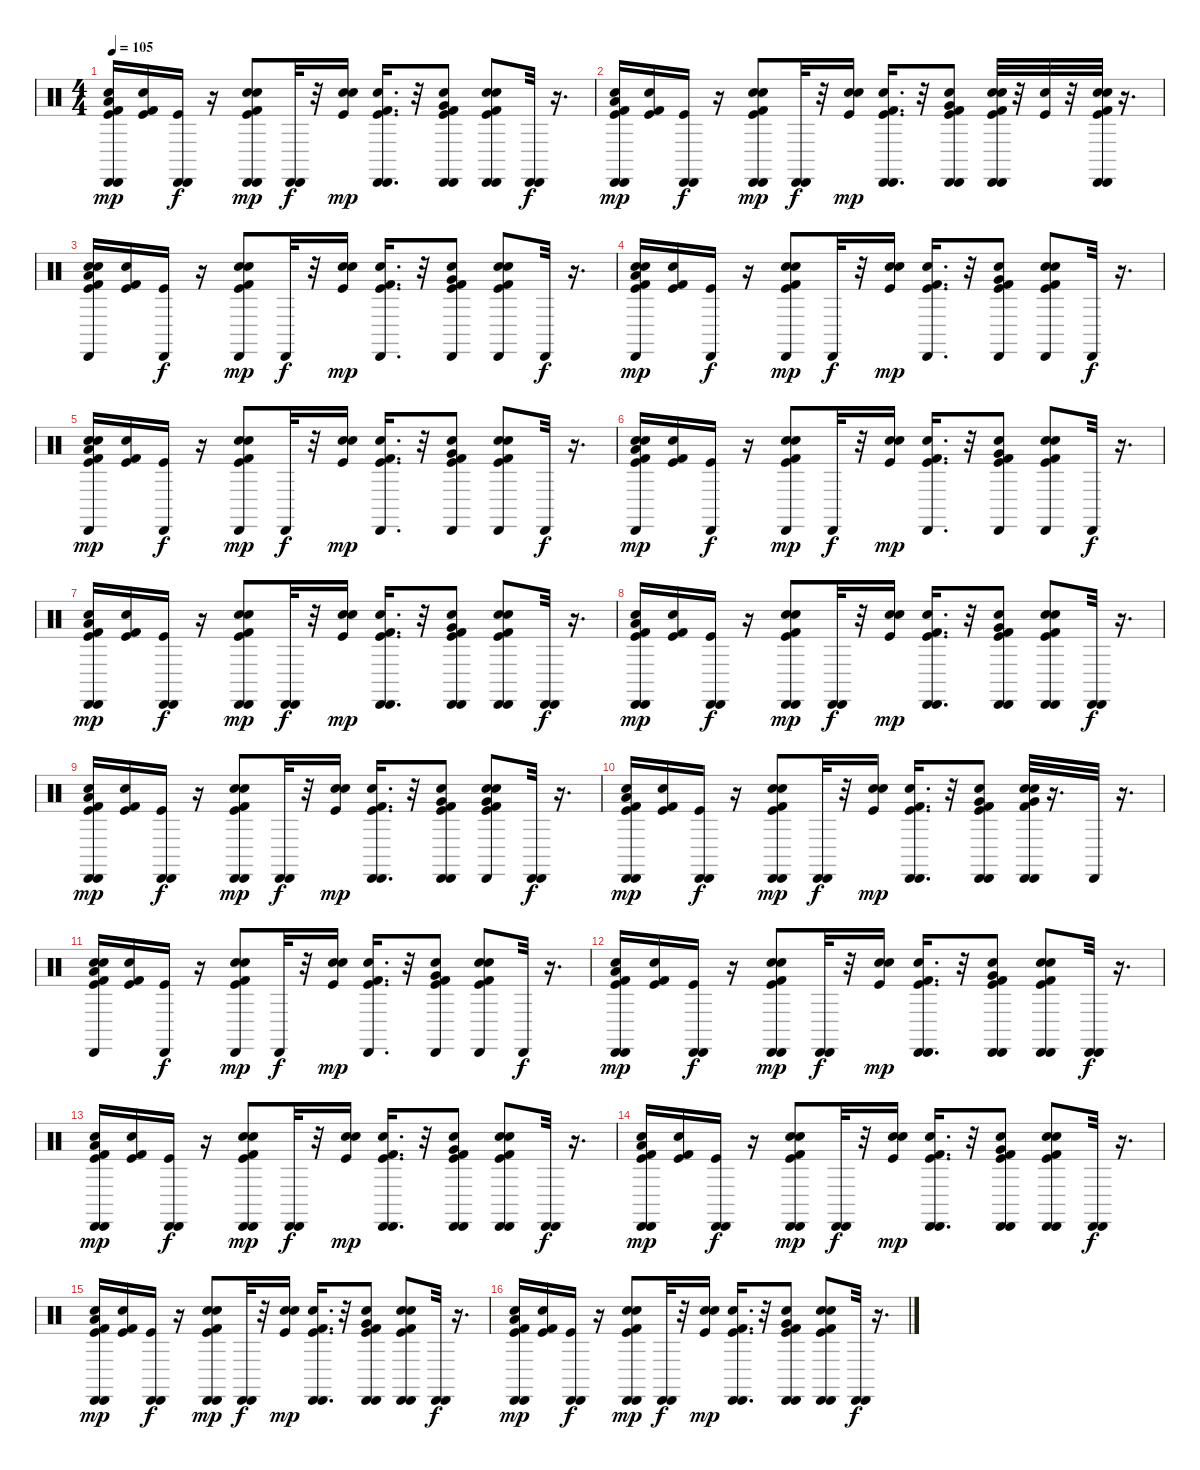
\track "" {instrument percussion}
\staff {score}
\articulation defaults
\ts (4 4)
\tempo 105
\clef neutral
\ks c
("Cabasa (hit)" "Kick (hit) 2" "Kick (hit)" "Cabasa (hit)" "Electric Snare (hit)" "Low Floor Tom (hit)").16{dy mp} ("Snare (hit) 2" "Kick (hit)" "Kick (hit) 2").16 ("Cabasa (hit)" "Cabasa (hit)" "Kick (hit)").16{dy f} r.16 ("Electric Snare (hit)" "Cabasa (hit)" "Cabasa (hit)" "Kick (hit) 2" "Kick (hit)" "Snare (hit) 2").8{dy mp} ("Cabasa (hit)" "Cabasa (hit)").32{dy f} r.32 ("Kick (hit)" "Electric Snare (hit)" "Snare (hit) 2").16{dy mp} ("Kick (hit)" "Snare (hit) 2" "Kick (hit) 2" "Cabasa (hit)" "Cabasa (hit)").16{d} r.32 ("Kick (hit) 2" "Snare (hit) 2" "Kick (hit)" "Cabasa (hit)" "Very Low Tom (hit)" "Cabasa (hit)").8 ("Kick (hit)" "Snare (hit) 2" "Cabasa (hit)" "Kick (hit) 2" "Electric Snare (hit)" "Cabasa (hit)").8 ("Cabasa (hit)" "Cabasa (hit)").32{dy f} r.16{d} |
("Kick (hit) 2" "Cabasa (hit)" "Kick (hit)" "Cabasa (hit)" "Low Floor Tom (hit)" "Electric Snare (hit)").16{dy mp} ("Kick (hit) 2" "Kick (hit)" "Snare (hit) 2").16 ("Kick (hit)" "Cabasa (hit)" "Cabasa (hit)").16{dy f} r.16 ("Snare (hit) 2" "Cabasa (hit)" "Kick (hit)" "Electric Snare (hit)" "Cabasa (hit)" "Kick (hit) 2").8{dy mp} ("Cabasa (hit)" "Cabasa (hit)").32{dy f} r.32 ("Electric Snare (hit)" "Kick (hit)" "Snare (hit) 2").16{dy mp} ("Cabasa (hit)" "Cabasa (hit)" "Snare (hit) 2" "Kick (hit)" "Kick (hit) 2").16{d} r.32 ("Snare (hit) 2" "Kick (hit)" "Cabasa (hit)" "Kick (hit) 2" "Very Low Tom (hit)" "Cabasa (hit)").8 ("Electric Snare (hit)" "Kick (hit)" "Kick (hit) 2" "Snare (hit) 2" "Cabasa (hit)" "Cabasa (hit)").32 r.32 ("Kick (hit)" "Snare (hit) 2").32 r.32 ("Kick (hit)" "Cabasa (hit)" "Cabasa (hit)" "Hand Clap (hit)" "Kick (hit) 2" "Electric Snare (hit)").32 r.16{d} |
("Cabasa (hit)" "Low Floor Tom (hit)" "Electric Snare (hit)" "Kick (hit) 2" "Kick (hit)" "Snare (hit) 2").16 ("Snare (hit) 2" "Kick (hit)" "Kick (hit) 2").16 ("Kick (hit)" "Cabasa (hit)").16{dy f} r.16 ("Hand Clap (hit)" "Cabasa (hit)" "Kick (hit) 2" "Snare (hit) 2" "Kick (hit)").8{dy mp} "Cabasa (hit)".32{dy f} r.32 ("Snare (hit) 2" "Kick (hit)" "Electric Snare (hit)").16{dy mp} ("Kick (hit) 2" "Snare (hit) 2" "Kick (hit)" "Cabasa (hit)").16{d} r.32 ("Snare (hit) 2" "Kick (hit) 2" "Cabasa (hit)" "Very Low Tom (hit)" "Kick (hit)").8 ("Snare (hit) 2" "Kick (hit)" "Hand Clap (hit)" "Cabasa (hit)" "Kick (hit) 2").8 "Cabasa (hit)".32{dy f} r.16{d} |
("Electric Snare (hit)" "Kick (hit)" "Kick (hit) 2" "Cabasa (hit)" "Low Floor Tom (hit)" "Snare (hit) 2").16{dy mp} ("Kick (hit)" "Snare (hit) 2" "Kick (hit) 2").16 ("Cabasa (hit)" "Kick (hit)").16{dy f} r.16 ("Hand Clap (hit)" "Kick (hit)" "Snare (hit) 2" "Cabasa (hit)" "Kick (hit) 2").8{dy mp} "Cabasa (hit)".32{dy f} r.32 ("Electric Snare (hit)" "Snare (hit) 2" "Kick (hit)").16{dy mp} ("Snare (hit) 2" "Kick (hit) 2" "Kick (hit)" "Cabasa (hit)").16{d} r.32 ("Kick (hit) 2" "Very Low Tom (hit)" "Snare (hit) 2" "Kick (hit)" "Cabasa (hit)").8 ("Kick (hit)" "Cabasa (hit)" "Snare (hit) 2" "Hand Clap (hit)" "Kick (hit) 2").8 "Cabasa (hit)".32{dy f} r.16{d} |
("Kick (hit) 2" "Kick (hit)" "Electric Snare (hit)" "Low Floor Tom (hit)" "Cabasa (hit)" "Snare (hit) 2").16{dy mp} ("Kick (hit) 2" "Snare (hit) 2" "Kick (hit)").16 ("Cabasa (hit)" "Kick (hit)").16{dy f} r.16 ("Kick (hit) 2" "Cabasa (hit)" "Kick (hit)" "Snare (hit) 2" "Hand Clap (hit)").8{dy mp} "Cabasa (hit)".32{dy f} r.32 ("Kick (hit)" "Snare (hit) 2" "Electric Snare (hit)").16{dy mp} ("Snare (hit) 2" "Kick (hit)" "Kick (hit) 2" "Cabasa (hit)").16{d} r.32 ("Kick (hit)" "Kick (hit) 2" "Snare (hit) 2" "Very Low Tom (hit)" "Cabasa (hit)").8 ("Cabasa (hit)" "Snare (hit) 2" "Kick (hit)" "Kick (hit) 2" "Hand Clap (hit)").8 "Cabasa (hit)".32{dy f} r.16{d} |
("Kick (hit) 2" "Electric Snare (hit)" "Kick (hit)" "Cabasa (hit)" "Low Floor Tom (hit)" "Snare (hit) 2").16{dy mp} ("Kick (hit)" "Snare (hit) 2" "Kick (hit) 2").16 ("Cabasa (hit)" "Kick (hit)").16{dy f} r.16 ("Kick (hit) 2" "Cabasa (hit)" "Hand Clap (hit)" "Snare (hit) 2" "Kick (hit)").8{dy mp} "Cabasa (hit)".32{dy f} r.32 ("Kick (hit)" "Snare (hit) 2" "Electric Snare (hit)").16{dy mp} ("Kick (hit)" "Snare (hit) 2" "Kick (hit) 2" "Cabasa (hit)").16{d} r.32 ("Very Low Tom (hit)" "Snare (hit) 2" "Cabasa (hit)" "Kick (hit) 2" "Kick (hit)").8 ("Kick (hit)" "Hand Clap (hit)" "Snare (hit) 2" "Cabasa (hit)" "Kick (hit) 2").8 "Cabasa (hit)".32{dy f} r.16{d} |
("Kick (hit)" "Cabasa (hit)" "Electric Snare (hit)" "Low Floor Tom (hit)" "Cabasa (hit)" "Kick (hit) 2").16{dy mp} ("Kick (hit) 2" "Kick (hit)" "Snare (hit) 2").16 ("Kick (hit)" "Cabasa (hit)" "Cabasa (hit)").16{dy f} r.16 ("Cabasa (hit)" "Hand Clap (hit)" "Kick (hit) 2" "Kick (hit)" "Cabasa (hit)" "Snare (hit) 2").8{dy mp} ("Cabasa (hit)" "Cabasa (hit)").32{dy f} r.32 ("Snare (hit) 2" "Electric Snare (hit)" "Kick (hit)").16{dy mp} ("Snare (hit) 2" "Cabasa (hit)" "Kick (hit)" "Cabasa (hit)" "Kick (hit) 2").16{d} r.32 ("Kick (hit) 2" "Very Low Tom (hit)" "Snare (hit) 2" "Cabasa (hit)" "Cabasa (hit)" "Kick (hit)").8 ("Kick (hit)" "Kick (hit) 2" "Cabasa (hit)" "Hand Clap (hit)" "Snare (hit) 2" "Cabasa (hit)").8 ("Cabasa (hit)" "Cabasa (hit)").32{dy f} r.16{d} |
("Cabasa (hit)" "Kick (hit) 2" "Electric Snare (hit)" "Kick (hit)" "Cabasa (hit)" "Low Floor Tom (hit)").16{dy mp} ("Snare (hit) 2" "Kick (hit)" "Kick (hit) 2").16 ("Kick (hit)" "Cabasa (hit)" "Cabasa (hit)").16{dy f} r.16 ("Cabasa (hit)" "Kick (hit) 2" "Hand Clap (hit)" "Snare (hit) 2" "Kick (hit)" "Cabasa (hit)").8{dy mp} ("Cabasa (hit)" "Cabasa (hit)").32{dy f} r.32 ("Electric Snare (hit)" "Snare (hit) 2" "Kick (hit)").16{dy mp} ("Kick (hit)" "Snare (hit) 2" "Cabasa (hit)" "Cabasa (hit)" "Kick (hit) 2").16{d} r.32 ("Very Low Tom (hit)" "Cabasa (hit)" "Snare (hit) 2" "Kick (hit)" "Kick (hit) 2" "Cabasa (hit)").8 ("Kick (hit) 2" "Hand Clap (hit)" "Snare (hit) 2" "Cabasa (hit)" "Cabasa (hit)" "Kick (hit)").8 ("Cabasa (hit)" "Cabasa (hit)").32{dy f} r.16{d} |
("Low Floor Tom (hit)" "Kick (hit) 2" "Kick (hit)" "Electric Snare (hit)" "Cabasa (hit)" "Cabasa (hit)").16{dy mp} ("Snare (hit) 2" "Kick (hit)" "Kick (hit) 2").16 ("Kick (hit)" "Cabasa (hit)" "Cabasa (hit)").16{dy f} r.16 ("Cabasa (hit)" "Cabasa (hit)" "Kick (hit) 2" "Kick (hit)" "Snare (hit) 2" "Hand Clap (hit)").8{dy mp} ("Cabasa (hit)" "Cabasa (hit)").32{dy f} r.32 ("Kick (hit)" "Electric Snare (hit)" "Snare (hit) 2").16{dy mp} ("Snare (hit) 2" "Kick (hit) 2" "Cabasa (hit)" "Kick (hit)" "Cabasa (hit)").16{d} r.32 ("Very Low Tom (hit)" "Kick (hit) 2" "Snare (hit) 2" "Kick (hit)" "Cabasa (hit)" "Cabasa (hit)").8 ("Very Low Tom (hit)" "Kick (hit)" "Cabasa (hit)" "Snare (hit) 2" "Kick (hit) 2" "Hand Clap (hit)").8 ("Cabasa (hit)" "Cabasa (hit)").32{dy f} r.16{d} |
("Cabasa (hit)" "Kick (hit)" "Cabasa (hit)" "Kick (hit) 2" "Low Floor Tom (hit)" "Electric Snare (hit)").16{dy mp} ("Kick (hit)" "Snare (hit) 2" "Kick (hit) 2").16 ("Cabasa (hit)" "Cabasa (hit)" "Kick (hit)").16{dy f} r.16 ("Cabasa (hit)" "Snare (hit) 2" "Kick (hit)" "Hand Clap (hit)" "Cabasa (hit)" "Kick (hit) 2").8{dy mp} ("Cabasa (hit)" "Cabasa (hit)").32{dy f} r.32 ("Electric Snare (hit)" "Snare (hit) 2" "Kick (hit)").16{dy mp} ("Kick (hit) 2" "Cabasa (hit)" "Cabasa (hit)" "Snare (hit) 2" "Kick (hit)").16{d} r.32 ("Kick (hit)" "Cabasa (hit)" "Kick (hit) 2" "Very Low Tom (hit)" "Snare (hit) 2" "Cabasa (hit)").8 ("Hand Clap (hit)" "Very Low Tom (hit)" "Kick (hit) 2" "Cabasa (hit)" "Cabasa (hit)" "Electric Snare (hit)").32 r.16{d} "Cabasa (hit)".32 r.16{d} |
("Cabasa (hit)" "Low Floor Tom (hit)" "Electric Snare (hit)" "Kick (hit) 2" "Kick (hit)" "Snare (hit) 2").16 ("Kick (hit) 2" "Kick (hit)" "Snare (hit) 2").16 ("Kick (hit)" "Cabasa (hit)").16{dy f} r.16 ("Cabasa (hit)" "Electric Snare (hit)" "Kick (hit) 2" "Kick (hit)" "Snare (hit) 2").8{dy mp} "Cabasa (hit)".32{dy f} r.32 ("Kick (hit)" "Snare (hit) 2" "Electric Snare (hit)").16{dy mp} ("Cabasa (hit)" "Kick (hit) 2" "Snare (hit) 2" "Kick (hit)").16{d} r.32 ("Kick (hit)" "Snare (hit) 2" "Kick (hit) 2" "Cabasa (hit)" "Very Low Tom (hit)").8 ("Kick (hit) 2" "Cabasa (hit)" "Electric Snare (hit)" "Snare (hit) 2" "Kick (hit)").8 "Cabasa (hit)".32{dy f} r.16{d} |
("Kick (hit) 2" "Electric Snare (hit)" "Cabasa (hit)" "Kick (hit)" "Cabasa (hit)" "Low Floor Tom (hit)").16{dy mp} ("Kick (hit) 2" "Snare (hit) 2" "Kick (hit)").16 ("Cabasa (hit)" "Kick (hit)" "Cabasa (hit)").16{dy f} r.16 ("Electric Snare (hit)" "Kick (hit) 2" "Cabasa (hit)" "Snare (hit) 2" "Kick (hit)" "Cabasa (hit)").8{dy mp} ("Cabasa (hit)" "Cabasa (hit)").32{dy f} r.32 ("Kick (hit)" "Electric Snare (hit)" "Snare (hit) 2").16{dy mp} ("Kick (hit)" "Cabasa (hit)" "Cabasa (hit)" "Snare (hit) 2" "Kick (hit) 2").16{d} r.32 ("Very Low Tom (hit)" "Cabasa (hit)" "Cabasa (hit)" "Snare (hit) 2" "Kick (hit)" "Kick (hit) 2").8 ("Electric Snare (hit)" "Snare (hit) 2" "Cabasa (hit)" "Cabasa (hit)" "Kick (hit)" "Kick (hit) 2").8 ("Cabasa (hit)" "Cabasa (hit)").32{dy f} r.16{d} |
("Kick (hit)" "Cabasa (hit)" "Electric Snare (hit)" "Cabasa (hit)" "Kick (hit) 2" "Low Floor Tom (hit)").16{dy mp} ("Kick (hit)" "Kick (hit) 2" "Snare (hit) 2").16 ("Cabasa (hit)" "Cabasa (hit)" "Kick (hit)").16{dy f} r.16 ("Cabasa (hit)" "Cabasa (hit)" "Electric Snare (hit)" "Kick (hit) 2" "Kick (hit)" "Snare (hit) 2").8{dy mp} ("Cabasa (hit)" "Cabasa (hit)").32{dy f} r.32 ("Kick (hit)" "Electric Snare (hit)" "Snare (hit) 2").16{dy mp} ("Kick (hit) 2" "Snare (hit) 2" "Kick (hit)" "Cabasa (hit)" "Cabasa (hit)").16{d} r.32 ("Snare (hit) 2" "Kick (hit)" "Kick (hit) 2" "Cabasa (hit)" "Very Low Tom (hit)" "Cabasa (hit)").8 ("Cabasa (hit)" "Snare (hit) 2" "Kick (hit)" "Electric Snare (hit)" "Cabasa (hit)" "Kick (hit) 2").8 ("Cabasa (hit)" "Cabasa (hit)").32{dy f} r.16{d} |
("Cabasa (hit)" "Low Floor Tom (hit)" "Kick (hit)" "Electric Snare (hit)" "Cabasa (hit)" "Kick (hit) 2").16{dy mp} ("Kick (hit) 2" "Snare (hit) 2" "Kick (hit)").16 ("Kick (hit)" "Cabasa (hit)" "Cabasa (hit)").16{dy f} r.16 ("Kick (hit) 2" "Cabasa (hit)" "Electric Snare (hit)" "Snare (hit) 2" "Kick (hit)" "Cabasa (hit)").8{dy mp} ("Cabasa (hit)" "Cabasa (hit)").32{dy f} r.32 ("Electric Snare (hit)" "Kick (hit)" "Snare (hit) 2").16{dy mp} ("Cabasa (hit)" "Snare (hit) 2" "Kick (hit)" "Kick (hit) 2" "Cabasa (hit)").16{d} r.32 ("Very Low Tom (hit)" "Kick (hit)" "Cabasa (hit)" "Snare (hit) 2" "Cabasa (hit)" "Kick (hit) 2").8 ("Cabasa (hit)" "Cabasa (hit)" "Electric Snare (hit)" "Kick (hit)" "Kick (hit) 2" "Snare (hit) 2").8 ("Cabasa (hit)" "Cabasa (hit)").32{dy f} r.16{d} |
("Cabasa (hit)" "Kick (hit) 2" "Kick (hit)" "Low Floor Tom (hit)" "Cabasa (hit)" "Electric Snare (hit)").16{dy mp} ("Kick (hit) 2" "Kick (hit)" "Snare (hit) 2").16 ("Cabasa (hit)" "Cabasa (hit)" "Kick (hit)").16{dy f} r.16 ("Cabasa (hit)" "Electric Snare (hit)" "Snare (hit) 2" "Kick (hit) 2" "Cabasa (hit)" "Kick (hit)").8{dy mp} ("Cabasa (hit)" "Cabasa (hit)").32{dy f} r.32 ("Kick (hit)" "Electric Snare (hit)" "Snare (hit) 2").16{dy mp} ("Snare (hit) 2" "Kick (hit)" "Kick (hit) 2" "Cabasa (hit)" "Cabasa (hit)").16{d} r.32 ("Kick (hit)" "Snare (hit) 2" "Kick (hit) 2" "Cabasa (hit)" "Very Low Tom (hit)" "Cabasa (hit)").8 ("Snare (hit) 2" "Kick (hit)" "Cabasa (hit)" "Kick (hit) 2" "Cabasa (hit)" "Electric Snare (hit)").8 ("Cabasa (hit)" "Cabasa (hit)").32{dy f} r.16{d} |
("Cabasa (hit)" "Low Floor Tom (hit)" "Kick (hit)" "Electric Snare (hit)" "Cabasa (hit)" "Kick (hit) 2").16{dy mp} ("Kick (hit) 2" "Snare (hit) 2" "Kick (hit)").16 ("Kick (hit)" "Cabasa (hit)" "Cabasa (hit)").16{dy f} r.16 ("Kick (hit) 2" "Cabasa (hit)" "Electric Snare (hit)" "Snare (hit) 2" "Kick (hit)" "Cabasa (hit)").8{dy mp} ("Cabasa (hit)" "Cabasa (hit)").32{dy f} r.32 ("Electric Snare (hit)" "Kick (hit)" "Snare (hit) 2").16{dy mp} ("Cabasa (hit)" "Snare (hit) 2" "Kick (hit)" "Kick (hit) 2" "Cabasa (hit)").16{d} r.32 ("Very Low Tom (hit)" "Kick (hit)" "Cabasa (hit)" "Snare (hit) 2" "Cabasa (hit)" "Kick (hit) 2").8 ("Cabasa (hit)" "Cabasa (hit)" "Electric Snare (hit)" "Kick (hit)" "Kick (hit) 2" "Snare (hit) 2").8 ("Cabasa (hit)" "Cabasa (hit)").32{dy f} r.16{d}
